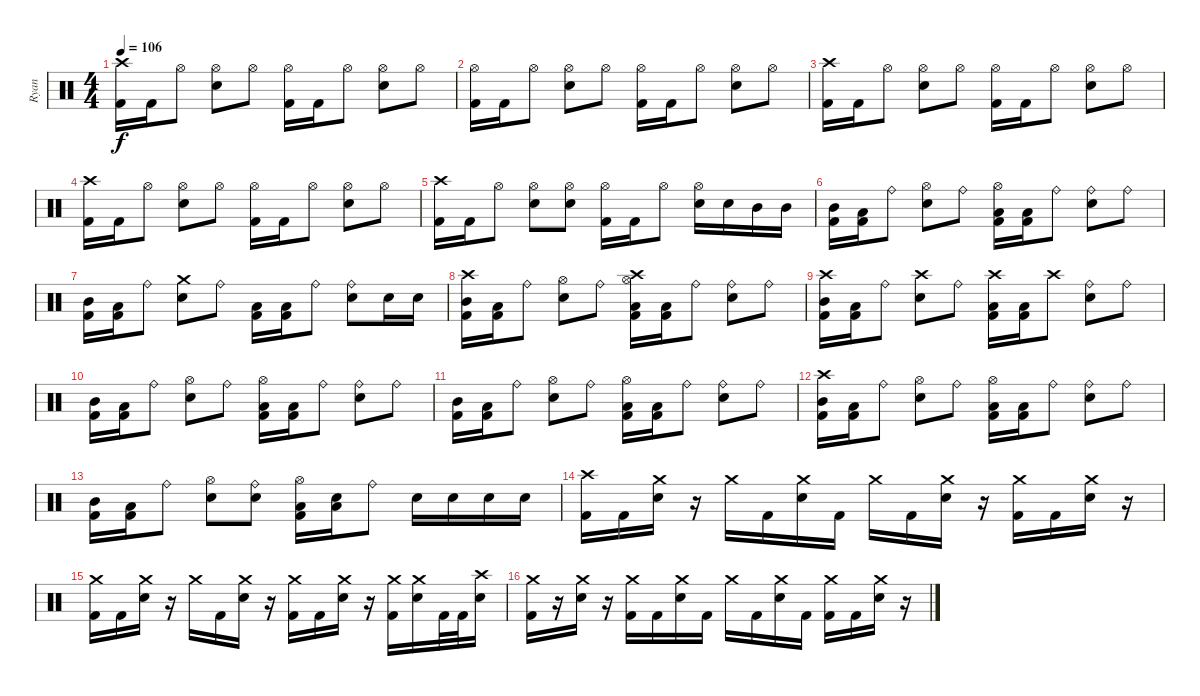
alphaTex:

\track ("Ryan" "Ryan") {instrument percussion}
\staff {score}
\articulation defaults
\ts (4 4)
\tempo 106
\clef neutral
\ks c
("Crash high (hit)" "Kick (hit) 2").16{dy f} "Kick (hit) 2".16 "Hi-Hat (open)".8 ("Hi-Hat (open)" "Electric Snare (hit)").8 "Hi-Hat (open)".8 ("Hi-Hat (open)" "Kick (hit) 2").16 "Kick (hit) 2".16 "Hi-Hat (open)".8 ("Hi-Hat (open)" "Electric Snare (hit)").8 "Hi-Hat (open)".8 |
("Hi-Hat (open)" "Kick (hit) 2").16 "Kick (hit) 2".16 "Hi-Hat (open)".8 ("Hi-Hat (open)" "Electric Snare (hit)").8 "Hi-Hat (open)".8 ("Hi-Hat (open)" "Kick (hit) 2").16 "Kick (hit) 2".16 "Hi-Hat (open)".8 ("Hi-Hat (open)" "Electric Snare (hit)").8 "Hi-Hat (open)".8 |
("Crash high (hit)" "Kick (hit) 2").16 "Kick (hit) 2".16 "Hi-Hat (open)".8 ("Hi-Hat (open)" "Electric Snare (hit)").8 "Hi-Hat (open)".8 ("Hi-Hat (open)" "Kick (hit) 2").16 "Kick (hit) 2".16 "Hi-Hat (open)".8 ("Hi-Hat (open)" "Electric Snare (hit)").8 "Hi-Hat (open)".8 |
("Crash high (hit)" "Kick (hit) 2").16 "Kick (hit) 2".16 "Hi-Hat (open)".8 ("Hi-Hat (open)" "Electric Snare (hit)").8 "Hi-Hat (open)".8 ("Hi-Hat (open)" "Kick (hit) 2").16 "Kick (hit) 2".16 "Hi-Hat (open)".8 ("Hi-Hat (open)" "Electric Snare (hit)").8 "Hi-Hat (open)".8 |
("Crash high (hit)" "Kick (hit) 2").16 "Kick (hit) 2".16 "Hi-Hat (open)".8 ("Hi-Hat (open)" "Electric Snare (hit)").8 ("Hi-Hat (open)" "Electric Snare (hit)").8 ("Hi-Hat (open)" "Kick (hit) 2").16 "Kick (hit) 2".16 "Hi-Hat (open)".8 ("Hi-Hat (open)" "Electric Snare (hit)").16 "Electric Snare (hit)".16 "Mid Tom (hit)".16 "Mid Tom (hit)".16 |
("Mid Tom (hit)" "Kick (hit) 2").16 ("Low Tom (hit)" "Kick (hit) 2").16 "Ride (bell)".8 ("Hi-Hat (open)" "Electric Snare (hit)").8 "Ride (bell)".8 ("Hi-Hat (open)" "Low Tom (hit)" "Kick (hit) 2").16 ("Low Tom (hit)" "Kick (hit) 2").16 "Ride (bell)".8 ("Ride (bell)" "Electric Snare (hit)").8 "Ride (bell)".8 |
("Mid Tom (hit)" "Kick (hit) 2").16 ("Low Tom (hit)" "Kick (hit) 2").16 "Ride (bell)".8 ("Crash medium (hit)" "Electric Snare (hit)").8 "Ride (bell)".8 ("Low Tom (hit)" "Kick (hit) 2").16 ("Low Tom (hit)" "Kick (hit) 2").16 "Ride (bell)".8 ("Ride (bell)" "Electric Snare (hit)").8 "Electric Snare (hit)".16 "Electric Snare (hit)".16 |
("Crash high (hit)" "Mid Tom (hit)" "Kick (hit) 2").16 ("Low Tom (hit)" "Kick (hit) 2").16 "Ride (bell)".8 ("Hi-Hat (open)" "Electric Snare (hit)").8 "Ride (bell)".8 ("Crash high (hit)" "Hi-Hat (open)" "Low Tom (hit)" "Kick (hit) 2").16 ("Low Tom (hit)" "Kick (hit) 2").16 "Ride (bell)".8 ("Ride (bell)" "Electric Snare (hit)").8 "Ride (bell)".8 |
("Crash high (hit)" "Mid Tom (hit)" "Kick (hit) 2").16 ("Low Tom (hit)" "Kick (hit) 2").16 "Ride (bell)".8 ("Crash high (hit)" "Electric Snare (hit)").8 "Ride (bell)".8 ("Crash high (hit)" "Low Tom (hit)" "Kick (hit) 2").16 ("Low Tom (hit)" "Kick (hit) 2").16 "Crash high (hit)".8 ("Ride (bell)" "Electric Snare (hit)").8 "Ride (bell)".8 |
("Mid Tom (hit)" "Kick (hit) 2").16 ("Low Tom (hit)" "Kick (hit) 2").16 "Ride (bell)".8 ("Hi-Hat (open)" "Electric Snare (hit)").8 "Ride (bell)".8 ("Hi-Hat (open)" "Low Tom (hit)" "Kick (hit) 2").16 ("Low Tom (hit)" "Kick (hit) 2").16 "Ride (bell)".8 ("Ride (bell)" "Electric Snare (hit)").8 "Ride (bell)".8 |
("Mid Tom (hit)" "Kick (hit) 2").16 ("Low Tom (hit)" "Kick (hit) 2").16 "Ride (bell)".8 ("Hi-Hat (open)" "Electric Snare (hit)").8 "Ride (bell)".8 ("Hi-Hat (open)" "Low Tom (hit)" "Kick (hit) 2").16 ("Low Tom (hit)" "Kick (hit) 2").16 "Ride (bell)".8 ("Ride (bell)" "Electric Snare (hit)").8 "Ride (bell)".8 |
("Crash high (hit)" "Mid Tom (hit)" "Kick (hit) 2").16 ("Low Tom (hit)" "Kick (hit) 2").16 "Ride (bell)".8 ("Hi-Hat (open)" "Electric Snare (hit)").8 "Ride (bell)".8 ("Hi-Hat (open)" "Low Tom (hit)" "Kick (hit) 2").16 ("Low Tom (hit)" "Kick (hit) 2").16 "Ride (bell)".8 ("Ride (bell)" "Electric Snare (hit)").8 "Ride (bell)".8 |
("Mid Tom (hit)" "Kick (hit) 2").16 ("Low Tom (hit)" "Kick (hit) 2").16 "Ride (bell)".8 ("Hi-Hat (open)" "Electric Snare (hit)").8 ("Ride (bell)" "Electric Snare (hit)").8 ("Hi-Hat (open)" "Low Tom (hit)" "Kick (hit) 2").16 ("Low Tom (hit)" "Electric Snare (hit)").16 "Ride (bell)".8 "Electric Snare (hit)".16 "Electric Snare (hit)".16 "Electric Snare (hit)".16 "Electric Snare (hit)".16 |
("Crash high (hit)" "Kick (hit) 2").16 "Kick (hit) 2".16 ("Crash medium (hit)" "Electric Snare (hit)").16 r.16 "Crash medium (hit)".16 "Kick (hit) 2".16 ("Crash medium (hit)" "Electric Snare (hit)").16 "Kick (hit) 2".16 "Crash medium (hit)".16 "Kick (hit) 2".16 ("Crash medium (hit)" "Electric Snare (hit)").16 r.16 ("Crash medium (hit)" "Kick (hit) 2").16 "Kick (hit) 2".16 ("Crash medium (hit)" "Electric Snare (hit)").16 r.16 |
("Crash medium (hit)" "Kick (hit) 2").16 "Kick (hit) 2".16 ("Crash medium (hit)" "Electric Snare (hit)").16 r.16 "Crash medium (hit)".16 "Kick (hit) 2".16 ("Crash medium (hit)" "Electric Snare (hit)").16 r.16 ("Crash medium (hit)" "Kick (hit) 2").16 "Kick (hit) 2".16 ("Crash medium (hit)" "Electric Snare (hit)").16 r.16 ("Crash medium (hit)" "Kick (hit) 2").16 ("Crash medium (hit)" "Electric Snare (hit)").16 "Kick (hit) 2".32 "Kick (hit) 2".32 ("Crash high (hit)" "Electric Snare (hit)").16 |
("Crash medium (hit)" "Kick (hit) 2").16 r.16 ("Crash medium (hit)" "Electric Snare (hit)").16 r.16 ("Crash medium (hit)" "Kick (hit) 2").16 "Kick (hit) 2".16 ("Crash medium (hit)" "Electric Snare (hit)").16 "Kick (hit) 2".16 "Crash medium (hit)".16 "Kick (hit) 2".16 ("Crash medium (hit)" "Electric Snare (hit)").16 "Kick (hit) 2".16 ("Crash medium (hit)" "Kick (hit) 2").16 "Kick (hit) 2".16 ("Crash medium (hit)" "Electric Snare (hit)").16 r.16
